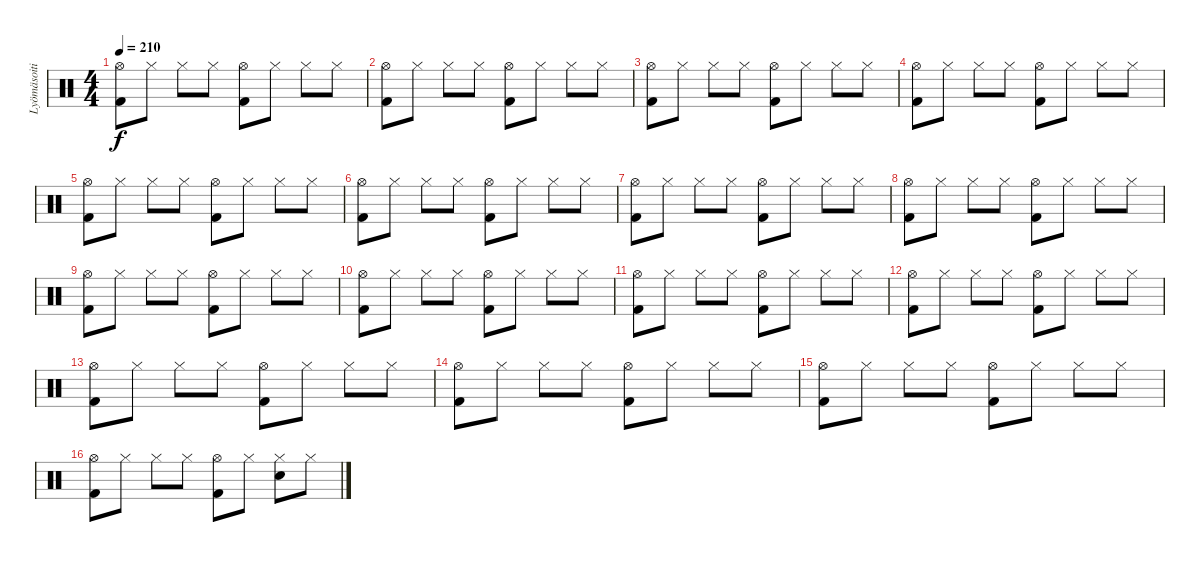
\track ("Lyömäsoitin" "Lyömäsoiti") {instrument percussion}
\staff {score}
\articulation defaults
\ts (4 4)
\tempo 210
\clef neutral
\ks c
("Hi-Hat (open)" "Kick (hit) 2").8{dy f} "Hi-Hat (closed)".8 "Hi-Hat (closed)".8 "Hi-Hat (closed)".8 ("Hi-Hat (open)" "Kick (hit) 2").8 "Hi-Hat (closed)".8 "Hi-Hat (closed)".8 "Hi-Hat (closed)".8 |
("Hi-Hat (open)" "Kick (hit) 2").8 "Hi-Hat (closed)".8 "Hi-Hat (closed)".8 "Hi-Hat (closed)".8 ("Hi-Hat (open)" "Kick (hit) 2").8 "Hi-Hat (closed)".8 "Hi-Hat (closed)".8 "Hi-Hat (closed)".8 |
("Hi-Hat (open)" "Kick (hit) 2").8 "Hi-Hat (closed)".8 "Hi-Hat (closed)".8 "Hi-Hat (closed)".8 ("Hi-Hat (open)" "Kick (hit) 2").8 "Hi-Hat (closed)".8 "Hi-Hat (closed)".8 "Hi-Hat (closed)".8 |
("Hi-Hat (open)" "Kick (hit) 2").8 "Hi-Hat (closed)".8 "Hi-Hat (closed)".8 "Hi-Hat (closed)".8 ("Hi-Hat (open)" "Kick (hit) 2").8 "Hi-Hat (closed)".8 "Hi-Hat (closed)".8 "Hi-Hat (closed)".8 |
("Hi-Hat (open)" "Kick (hit) 2").8 "Hi-Hat (closed)".8 "Hi-Hat (closed)".8 "Hi-Hat (closed)".8 ("Hi-Hat (open)" "Kick (hit) 2").8 "Hi-Hat (closed)".8 "Hi-Hat (closed)".8 "Hi-Hat (closed)".8 |
("Hi-Hat (open)" "Kick (hit) 2").8 "Hi-Hat (closed)".8 "Hi-Hat (closed)".8 "Hi-Hat (closed)".8 ("Hi-Hat (open)" "Kick (hit) 2").8 "Hi-Hat (closed)".8 "Hi-Hat (closed)".8 "Hi-Hat (closed)".8 |
("Hi-Hat (open)" "Kick (hit) 2").8 "Hi-Hat (closed)".8 "Hi-Hat (closed)".8 "Hi-Hat (closed)".8 ("Hi-Hat (open)" "Kick (hit) 2").8 "Hi-Hat (closed)".8 "Hi-Hat (closed)".8 "Hi-Hat (closed)".8 |
("Hi-Hat (open)" "Kick (hit) 2").8 "Hi-Hat (closed)".8 "Hi-Hat (closed)".8 "Hi-Hat (closed)".8 ("Hi-Hat (open)" "Kick (hit) 2").8 "Hi-Hat (closed)".8 "Hi-Hat (closed)".8 "Hi-Hat (closed)".8 |
("Hi-Hat (open)" "Kick (hit) 2").8 "Hi-Hat (closed)".8 "Hi-Hat (closed)".8 "Hi-Hat (closed)".8 ("Hi-Hat (open)" "Kick (hit) 2").8 "Hi-Hat (closed)".8 "Hi-Hat (closed)".8 "Hi-Hat (closed)".8 |
("Hi-Hat (open)" "Kick (hit) 2").8 "Hi-Hat (closed)".8 "Hi-Hat (closed)".8 "Hi-Hat (closed)".8 ("Hi-Hat (open)" "Kick (hit) 2").8 "Hi-Hat (closed)".8 "Hi-Hat (closed)".8 "Hi-Hat (closed)".8 |
("Hi-Hat (open)" "Kick (hit) 2").8 "Hi-Hat (closed)".8 "Hi-Hat (closed)".8 "Hi-Hat (closed)".8 ("Hi-Hat (open)" "Kick (hit) 2").8 "Hi-Hat (closed)".8 "Hi-Hat (closed)".8 "Hi-Hat (closed)".8 |
("Hi-Hat (open)" "Kick (hit) 2").8 "Hi-Hat (closed)".8 "Hi-Hat (closed)".8 "Hi-Hat (closed)".8 ("Hi-Hat (open)" "Kick (hit) 2").8 "Hi-Hat (closed)".8 "Hi-Hat (closed)".8 "Hi-Hat (closed)".8 |
("Hi-Hat (open)" "Kick (hit) 2").8 "Hi-Hat (closed)".8 "Hi-Hat (closed)".8 "Hi-Hat (closed)".8 ("Hi-Hat (open)" "Kick (hit) 2").8 "Hi-Hat (closed)".8 "Hi-Hat (closed)".8 "Hi-Hat (closed)".8 |
("Hi-Hat (open)" "Kick (hit) 2").8 "Hi-Hat (closed)".8 "Hi-Hat (closed)".8 "Hi-Hat (closed)".8 ("Hi-Hat (open)" "Kick (hit) 2").8 "Hi-Hat (closed)".8 "Hi-Hat (closed)".8 "Hi-Hat (closed)".8 |
("Hi-Hat (open)" "Kick (hit) 2").8 "Hi-Hat (closed)".8 "Hi-Hat (closed)".8 "Hi-Hat (closed)".8 ("Hi-Hat (open)" "Kick (hit) 2").8 "Hi-Hat (closed)".8 "Hi-Hat (closed)".8 "Hi-Hat (closed)".8 |
("Hi-Hat (open)" "Kick (hit) 2").8 "Hi-Hat (closed)".8 "Hi-Hat (closed)".8 "Hi-Hat (closed)".8 ("Hi-Hat (open)" "Kick (hit) 2").8 "Hi-Hat (closed)".8 ("Hi-Hat (closed)" "Electric Snare (hit)").8 "Hi-Hat (closed)".8
